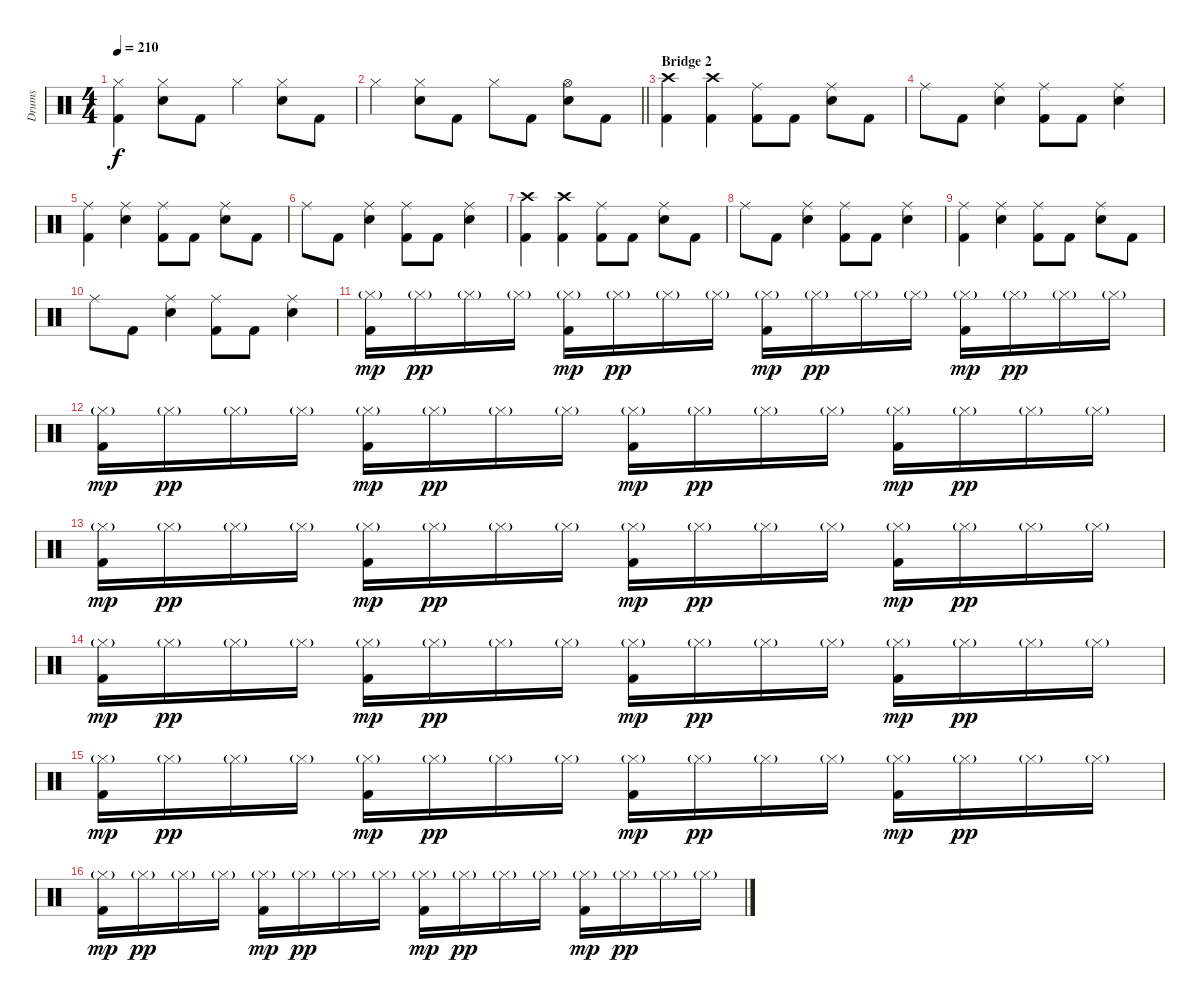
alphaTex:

\track ("Drums" "Drums") {instrument percussion}
\staff {score}
\articulation defaults
\ts (4 4)
\tempo 210
\clef neutral
\ks c
("Hi-Hat (closed)" "Kick (hit) 2").4{dy f} ("Hi-Hat (closed)" "Snare (hit) 2").8 "Kick (hit) 2".8 "Hi-Hat (closed)".4 ("Hi-Hat (closed)" "Snare (hit) 2").8 "Kick (hit) 2".8 |
\barLineRight lightlight "Hi-Hat (closed)".4
("Hi-Hat (closed)" "Snare (hit) 2").8 "Kick (hit) 2".8 "Hi-Hat (closed)".8 "Kick (hit) 2".8 ("Hi-Hat (open)" "Snare (hit) 2").8 "Kick (hit) 2".8 |
\section ("" "Bridge 2")
("Crash high (hit)" "Kick (hit) 2").4 ("Crash high (hit)" "Kick (hit) 2").4 ("Ride (middle)" "Kick (hit) 2").8 "Kick (hit) 2".8 ("Ride (middle)" "Snare (hit) 2").8 "Kick (hit) 2".8 |
"Ride (middle)".8 "Kick (hit) 2".8 ("Ride (middle)" "Snare (hit) 2").4 ("Ride (middle)" "Kick (hit) 2").8 "Kick (hit) 2".8 ("Ride (middle)" "Snare (hit) 2").4 |
("Ride (middle)" "Kick (hit) 2").4 ("Ride (middle)" "Snare (hit) 2").4 ("Ride (middle)" "Kick (hit) 2").8 "Kick (hit) 2".8 ("Ride (middle)" "Snare (hit) 2").8 "Kick (hit) 2".8 |
"Ride (middle)".8 "Kick (hit) 2".8 ("Ride (middle)" "Snare (hit) 2").4 ("Ride (middle)" "Kick (hit) 2").8 "Kick (hit) 2".8 ("Ride (middle)" "Snare (hit) 2").4 |
("Crash high (hit)" "Kick (hit) 2").4 ("Crash high (hit)" "Kick (hit) 2").4 ("Ride (middle)" "Kick (hit) 2").8 "Kick (hit) 2".8 ("Ride (middle)" "Snare (hit) 2").8 "Kick (hit) 2".8 |
"Ride (middle)".8 "Kick (hit) 2".8 ("Ride (middle)" "Snare (hit) 2").4 ("Ride (middle)" "Kick (hit) 2").8 "Kick (hit) 2".8 ("Ride (middle)" "Snare (hit) 2").4 |
("Ride (middle)" "Kick (hit) 2").4 ("Ride (middle)" "Snare (hit) 2").4 ("Ride (middle)" "Kick (hit) 2").8 "Kick (hit) 2".8 ("Ride (middle)" "Snare (hit) 2").8 "Kick (hit) 2".8 |
"Ride (middle)".8 "Kick (hit) 2".8 ("Ride (middle)" "Snare (hit) 2").4 ("Ride (middle)" "Kick (hit) 2").8 "Kick (hit) 2".8 ("Ride (middle)" "Snare (hit) 2").4 |
("Hi-Hat (closed)"{g} "Kick (hit) 2").16{dy mp} "Hi-Hat (closed)"{g}.16{dy pp} "Hi-Hat (closed)"{g}.16 "Hi-Hat (closed)"{g}.16 ("Hi-Hat (closed)"{g} "Kick (hit) 2").16{dy mp} "Hi-Hat (closed)"{g}.16{dy pp} "Hi-Hat (closed)"{g}.16 "Hi-Hat (closed)"{g}.16 ("Hi-Hat (closed)"{g} "Kick (hit) 2").16{dy mp} "Hi-Hat (closed)"{g}.16{dy pp} "Hi-Hat (closed)"{g}.16 "Hi-Hat (closed)"{g}.16 ("Hi-Hat (closed)"{g} "Kick (hit) 2").16{dy mp} "Hi-Hat (closed)"{g}.16{dy pp} "Hi-Hat (closed)"{g}.16 "Hi-Hat (closed)"{g}.16 |
("Hi-Hat (closed)"{g} "Kick (hit) 2").16{dy mp} "Hi-Hat (closed)"{g}.16{dy pp} "Hi-Hat (closed)"{g}.16 "Hi-Hat (closed)"{g}.16 ("Hi-Hat (closed)"{g} "Kick (hit) 2").16{dy mp} "Hi-Hat (closed)"{g}.16{dy pp} "Hi-Hat (closed)"{g}.16 "Hi-Hat (closed)"{g}.16 ("Hi-Hat (closed)"{g} "Kick (hit) 2").16{dy mp} "Hi-Hat (closed)"{g}.16{dy pp} "Hi-Hat (closed)"{g}.16 "Hi-Hat (closed)"{g}.16 ("Hi-Hat (closed)"{g} "Kick (hit) 2").16{dy mp} "Hi-Hat (closed)"{g}.16{dy pp} "Hi-Hat (closed)"{g}.16 "Hi-Hat (closed)"{g}.16 |
("Hi-Hat (closed)"{g} "Kick (hit) 2").16{dy mp} "Hi-Hat (closed)"{g}.16{dy pp} "Hi-Hat (closed)"{g}.16 "Hi-Hat (closed)"{g}.16 ("Hi-Hat (closed)"{g} "Kick (hit) 2").16{dy mp} "Hi-Hat (closed)"{g}.16{dy pp} "Hi-Hat (closed)"{g}.16 "Hi-Hat (closed)"{g}.16 ("Hi-Hat (closed)"{g} "Kick (hit) 2").16{dy mp} "Hi-Hat (closed)"{g}.16{dy pp} "Hi-Hat (closed)"{g}.16 "Hi-Hat (closed)"{g}.16 ("Hi-Hat (closed)"{g} "Kick (hit) 2").16{dy mp} "Hi-Hat (closed)"{g}.16{dy pp} "Hi-Hat (closed)"{g}.16 "Hi-Hat (closed)"{g}.16 |
("Hi-Hat (closed)"{g} "Kick (hit) 2").16{dy mp} "Hi-Hat (closed)"{g}.16{dy pp} "Hi-Hat (closed)"{g}.16 "Hi-Hat (closed)"{g}.16 ("Hi-Hat (closed)"{g} "Kick (hit) 2").16{dy mp} "Hi-Hat (closed)"{g}.16{dy pp} "Hi-Hat (closed)"{g}.16 "Hi-Hat (closed)"{g}.16 ("Hi-Hat (closed)"{g} "Kick (hit) 2").16{dy mp} "Hi-Hat (closed)"{g}.16{dy pp} "Hi-Hat (closed)"{g}.16 "Hi-Hat (closed)"{g}.16 ("Hi-Hat (closed)"{g} "Kick (hit) 2").16{dy mp} "Hi-Hat (closed)"{g}.16{dy pp} "Hi-Hat (closed)"{g}.16 "Hi-Hat (closed)"{g}.16 |
("Hi-Hat (closed)"{g} "Kick (hit) 2").16{dy mp} "Hi-Hat (closed)"{g}.16{dy pp} "Hi-Hat (closed)"{g}.16 "Hi-Hat (closed)"{g}.16 ("Hi-Hat (closed)"{g} "Kick (hit) 2").16{dy mp} "Hi-Hat (closed)"{g}.16{dy pp} "Hi-Hat (closed)"{g}.16 "Hi-Hat (closed)"{g}.16 ("Hi-Hat (closed)"{g} "Kick (hit) 2").16{dy mp} "Hi-Hat (closed)"{g}.16{dy pp} "Hi-Hat (closed)"{g}.16 "Hi-Hat (closed)"{g}.16 ("Hi-Hat (closed)"{g} "Kick (hit) 2").16{dy mp} "Hi-Hat (closed)"{g}.16{dy pp} "Hi-Hat (closed)"{g}.16 "Hi-Hat (closed)"{g}.16 |
("Hi-Hat (closed)"{g} "Kick (hit) 2").16{dy mp} "Hi-Hat (closed)"{g}.16{dy pp} "Hi-Hat (closed)"{g}.16 "Hi-Hat (closed)"{g}.16 ("Hi-Hat (closed)"{g} "Kick (hit) 2").16{dy mp} "Hi-Hat (closed)"{g}.16{dy pp} "Hi-Hat (closed)"{g}.16 "Hi-Hat (closed)"{g}.16 ("Hi-Hat (closed)"{g} "Kick (hit) 2").16{dy mp} "Hi-Hat (closed)"{g}.16{dy pp} "Hi-Hat (closed)"{g}.16 "Hi-Hat (closed)"{g}.16 ("Hi-Hat (closed)"{g} "Kick (hit) 2").16{dy mp} "Hi-Hat (closed)"{g}.16{dy pp} "Hi-Hat (closed)"{g}.16 "Hi-Hat (closed)"{g}.16
